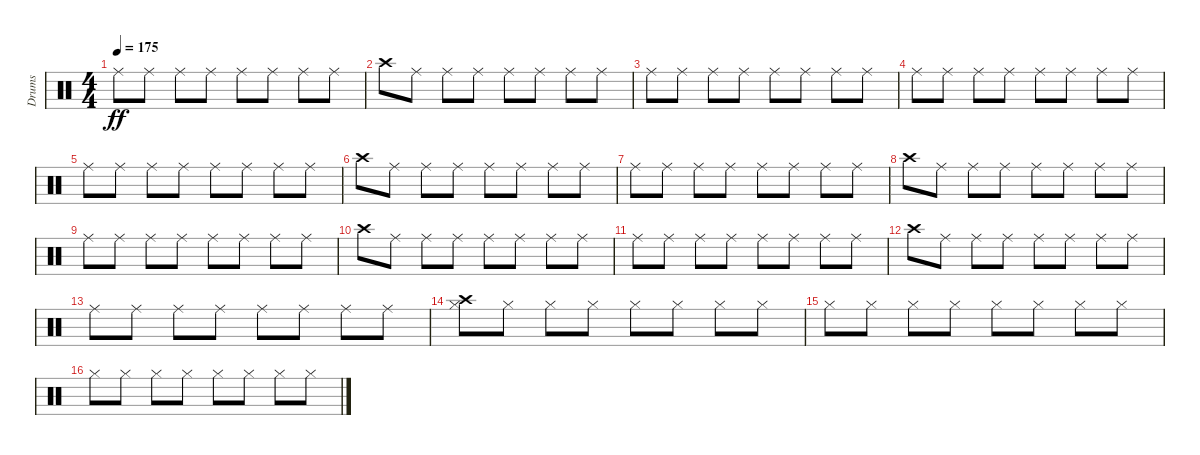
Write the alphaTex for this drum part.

\track ("Drums" "Drums") {instrument percussion}
\staff {score}
\articulation defaults
\ts (4 4)
\tempo 175
\clef neutral
\ks c "Ride (middle)".8{dy ff} "Ride (middle)".8 "Ride (middle)".8 "Ride (middle)".8 "Ride (middle)".8 "Ride (middle)".8 "Ride (middle)".8 "Ride (middle)".8
|
"Crash high (hit)".8 "Ride (middle)".8 "Ride (middle)".8 "Ride (middle)".8 "Ride (middle)".8 "Ride (middle)".8 "Ride (middle)".8 "Ride (middle)".8 |
"Ride (middle)".8 "Ride (middle)".8 "Ride (middle)".8 "Ride (middle)".8 "Ride (middle)".8 "Ride (middle)".8 "Ride (middle)".8 "Ride (middle)".8 |
"Ride (middle)".8 "Ride (middle)".8 "Ride (middle)".8 "Ride (middle)".8 "Ride (middle)".8 "Ride (middle)".8 "Ride (middle)".8 "Ride (middle)".8 |
"Ride (middle)".8 "Ride (middle)".8 "Ride (middle)".8 "Ride (middle)".8 "Ride (middle)".8 "Ride (middle)".8 "Ride (middle)".8 "Ride (middle)".8 |
"Crash high (hit)".8 "Ride (middle)".8 "Ride (middle)".8 "Ride (middle)".8 "Ride (middle)".8 "Ride (middle)".8 "Ride (middle)".8 "Ride (middle)".8 |
"Ride (middle)".8 "Ride (middle)".8 "Ride (middle)".8 "Ride (middle)".8 "Ride (middle)".8 "Ride (middle)".8 "Ride (middle)".8 "Ride (middle)".8 |
"Crash high (hit)".8 "Ride (middle)".8 "Ride (middle)".8 "Ride (middle)".8 "Ride (middle)".8 "Ride (middle)".8 "Ride (middle)".8 "Ride (middle)".8 |
"Ride (middle)".8 "Ride (middle)".8 "Ride (middle)".8 "Ride (middle)".8 "Ride (middle)".8 "Ride (middle)".8 "Ride (middle)".8 "Ride (middle)".8 |
"Crash high (hit)".8 "Ride (middle)".8 "Ride (middle)".8 "Ride (middle)".8 "Ride (middle)".8 "Ride (middle)".8 "Ride (middle)".8 "Ride (middle)".8 |
"Ride (middle)".8 "Ride (middle)".8 "Ride (middle)".8 "Ride (middle)".8 "Ride (middle)".8 "Ride (middle)".8 "Ride (middle)".8 "Ride (middle)".8 |
"Crash high (hit)".8 "Ride (middle)".8 "Ride (middle)".8 "Ride (middle)".8 "Ride (middle)".8 "Ride (middle)".8 "Ride (middle)".8 "Ride (middle)".8 |
"Ride (middle)".8 "Ride (middle)".8 "Ride (middle)".8 "Ride (middle)".8 "Ride (middle)".8 "Ride (middle)".8 "Ride (middle)".8 "Ride (middle)".8 |
("Hi-Hat (closed)" "Crash high (hit)").8 "Hi-Hat (closed)".8 "Hi-Hat (closed)".8 "Hi-Hat (closed)".8 "Hi-Hat (closed)".8 "Hi-Hat (closed)".8 "Hi-Hat (closed)".8 "Hi-Hat (closed)".8 |
"Hi-Hat (closed)".8 "Hi-Hat (closed)".8 "Hi-Hat (closed)".8 "Hi-Hat (closed)".8 "Hi-Hat (closed)".8 "Hi-Hat (closed)".8 "Hi-Hat (closed)".8 "Hi-Hat (closed)".8 |
"Hi-Hat (closed)".8 "Hi-Hat (closed)".8 "Hi-Hat (closed)".8 "Hi-Hat (closed)".8 "Hi-Hat (closed)".8 "Hi-Hat (closed)".8 "Hi-Hat (closed)".8 "Hi-Hat (closed)".8
